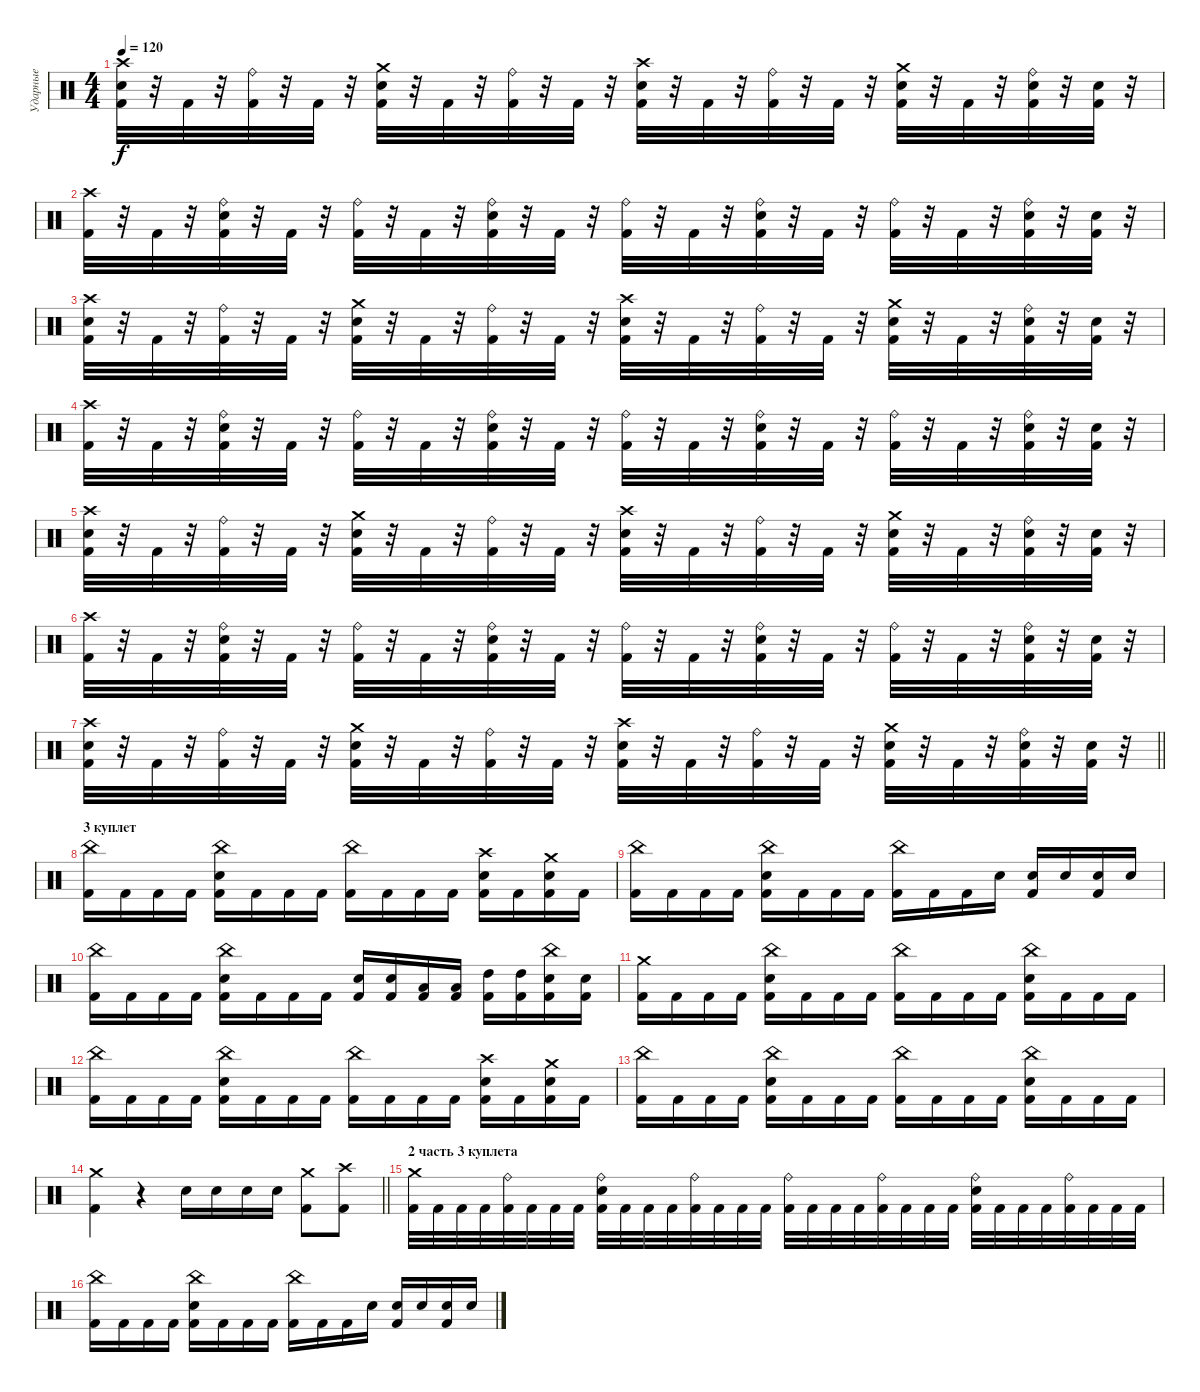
\track ("Ударные" "Ударные") {instrument percussion}
\staff {score}
\articulation defaults
\ts (4 4)
\tempo 120
\clef neutral
\ks c
("Crash high (hit)" "Snare (hit) 2" "Kick (hit) 2").32{dy f} r.32 "Kick (hit) 2".32 r.32 ("Ride (bell)" "Kick (hit) 2").32 r.32 "Kick (hit) 2".32 r.32 ("Crash medium (hit)" "Snare (hit) 2" "Kick (hit) 2").32 r.32 "Kick (hit) 2".32 r.32 ("Ride (bell)" "Kick (hit) 2").32 r.32 "Kick (hit) 2".32 r.32 ("Crash high (hit)" "Snare (hit) 2" "Kick (hit) 2").32 r.32 "Kick (hit) 2".32 r.32 ("Ride (bell)" "Kick (hit) 2").32 r.32 "Kick (hit) 2".32 r.32 ("Crash medium (hit)" "Snare (hit) 2" "Kick (hit) 2").32 r.32 "Kick (hit) 2".32 r.32 ("Ride (bell)" "Snare (hit) 2" "Kick (hit) 2").32 r.32 ("Snare (hit) 2" "Kick (hit) 2").32 r.32 |
("Crash high (hit)" "Kick (hit) 2").32 r.32 "Kick (hit) 2".32 r.32 ("Ride (bell)" "Snare (hit) 2" "Kick (hit) 2").32 r.32 "Kick (hit) 2".32 r.32 ("Ride (bell)" "Kick (hit) 2").32 r.32 "Kick (hit) 2".32 r.32 ("Ride (bell)" "Snare (hit) 2" "Kick (hit) 2").32 r.32 "Kick (hit) 2".32 r.32 ("Ride (bell)" "Kick (hit) 2").32 r.32 "Kick (hit) 2".32 r.32 ("Ride (bell)" "Snare (hit) 2" "Kick (hit) 2").32 r.32 "Kick (hit) 2".32 r.32 ("Ride (bell)" "Kick (hit) 2").32 r.32 "Kick (hit) 2".32 r.32 ("Ride (bell)" "Snare (hit) 2" "Kick (hit) 2").32 r.32 ("Snare (hit) 2" "Kick (hit) 2").32 r.32 |
("Crash high (hit)" "Snare (hit) 2" "Kick (hit) 2").32 r.32 "Kick (hit) 2".32 r.32 ("Ride (bell)" "Kick (hit) 2").32 r.32 "Kick (hit) 2".32 r.32 ("Crash medium (hit)" "Snare (hit) 2" "Kick (hit) 2").32 r.32 "Kick (hit) 2".32 r.32 ("Ride (bell)" "Kick (hit) 2").32 r.32 "Kick (hit) 2".32 r.32 ("Crash high (hit)" "Snare (hit) 2" "Kick (hit) 2").32 r.32 "Kick (hit) 2".32 r.32 ("Ride (bell)" "Kick (hit) 2").32 r.32 "Kick (hit) 2".32 r.32 ("Crash medium (hit)" "Snare (hit) 2" "Kick (hit) 2").32 r.32 "Kick (hit) 2".32 r.32 ("Ride (bell)" "Snare (hit) 2" "Kick (hit) 2").32 r.32 ("Snare (hit) 2" "Kick (hit) 2").32 r.32 |
("Crash high (hit)" "Kick (hit) 2").32 r.32 "Kick (hit) 2".32 r.32 ("Ride (bell)" "Snare (hit) 2" "Kick (hit) 2").32 r.32 "Kick (hit) 2".32 r.32 ("Ride (bell)" "Kick (hit) 2").32 r.32 "Kick (hit) 2".32 r.32 ("Ride (bell)" "Snare (hit) 2" "Kick (hit) 2").32 r.32 "Kick (hit) 2".32 r.32 ("Ride (bell)" "Kick (hit) 2").32 r.32 "Kick (hit) 2".32 r.32 ("Ride (bell)" "Snare (hit) 2" "Kick (hit) 2").32 r.32 "Kick (hit) 2".32 r.32 ("Ride (bell)" "Kick (hit) 2").32 r.32 "Kick (hit) 2".32 r.32 ("Ride (bell)" "Snare (hit) 2" "Kick (hit) 2").32 r.32 ("Snare (hit) 2" "Kick (hit) 2").32 r.32 |
("Crash high (hit)" "Snare (hit) 2" "Kick (hit) 2").32 r.32 "Kick (hit) 2".32 r.32 ("Ride (bell)" "Kick (hit) 2").32 r.32 "Kick (hit) 2".32 r.32 ("Crash medium (hit)" "Snare (hit) 2" "Kick (hit) 2").32 r.32 "Kick (hit) 2".32 r.32 ("Ride (bell)" "Kick (hit) 2").32 r.32 "Kick (hit) 2".32 r.32 ("Crash high (hit)" "Snare (hit) 2" "Kick (hit) 2").32 r.32 "Kick (hit) 2".32 r.32 ("Ride (bell)" "Kick (hit) 2").32 r.32 "Kick (hit) 2".32 r.32 ("Crash medium (hit)" "Snare (hit) 2" "Kick (hit) 2").32 r.32 "Kick (hit) 2".32 r.32 ("Ride (bell)" "Snare (hit) 2" "Kick (hit) 2").32 r.32 ("Snare (hit) 2" "Kick (hit) 2").32 r.32 |
("Crash high (hit)" "Kick (hit) 2").32 r.32 "Kick (hit) 2".32 r.32 ("Ride (bell)" "Snare (hit) 2" "Kick (hit) 2").32 r.32 "Kick (hit) 2".32 r.32 ("Ride (bell)" "Kick (hit) 2").32 r.32 "Kick (hit) 2".32 r.32 ("Ride (bell)" "Snare (hit) 2" "Kick (hit) 2").32 r.32 "Kick (hit) 2".32 r.32 ("Ride (bell)" "Kick (hit) 2").32 r.32 "Kick (hit) 2".32 r.32 ("Ride (bell)" "Snare (hit) 2" "Kick (hit) 2").32 r.32 "Kick (hit) 2".32 r.32 ("Ride (bell)" "Kick (hit) 2").32 r.32 "Kick (hit) 2".32 r.32 ("Ride (bell)" "Snare (hit) 2" "Kick (hit) 2").32 r.32 ("Snare (hit) 2" "Kick (hit) 2").32 r.32 |
\barLineRight lightlight
("Crash high (hit)" "Snare (hit) 2" "Kick (hit) 2").32 r.32 "Kick (hit) 2".32 r.32 ("Ride (bell)" "Kick (hit) 2").32 r.32 "Kick (hit) 2".32 r.32 ("Crash medium (hit)" "Snare (hit) 2" "Kick (hit) 2").32 r.32 "Kick (hit) 2".32 r.32 ("Ride (bell)" "Kick (hit) 2").32 r.32 "Kick (hit) 2".32 r.32 ("Crash high (hit)" "Snare (hit) 2" "Kick (hit) 2").32 r.32 "Kick (hit) 2".32 r.32 ("Ride (bell)" "Kick (hit) 2").32 r.32 "Kick (hit) 2".32 r.32 ("Crash medium (hit)" "Snare (hit) 2" "Kick (hit) 2").32 r.32 "Kick (hit) 2".32 r.32 ("Ride (bell)" "Snare (hit) 2" "Kick (hit) 2").32 r.32 ("Snare (hit) 2" "Kick (hit) 2").32 r.32 |
\section ("" "3 куплет")
("China (hit)" "Kick (hit) 2").16 "Kick (hit) 2".16 "Kick (hit) 2".16 "Kick (hit) 2".16 ("China (hit)" "Snare (hit) 2" "Kick (hit) 2").16 "Kick (hit) 2".16 "Kick (hit) 2".16 "Kick (hit) 2".16 ("China (hit)" "Kick (hit) 2").16 "Kick (hit) 2".16 "Kick (hit) 2".16 "Kick (hit) 2".16 ("Crash high (hit)" "Snare (hit) 2" "Kick (hit) 2").16 "Kick (hit) 2".16 ("Crash medium (hit)" "Snare (hit) 2" "Kick (hit) 2").16 "Kick (hit) 2".16 |
("China (hit)" "Kick (hit) 2").16 "Kick (hit) 2".16 "Kick (hit) 2".16 "Kick (hit) 2".16 ("China (hit)" "Snare (hit) 2" "Kick (hit) 2").16 "Kick (hit) 2".16 "Kick (hit) 2".16 "Kick (hit) 2".16 ("China (hit)" "Kick (hit) 2").16 "Kick (hit) 2".16 "Kick (hit) 2".16 "Snare (hit) 2".16 ("Snare (hit) 2" "Kick (hit) 2").16 "Snare (hit) 2".16 ("Snare (hit) 2" "Kick (hit) 2").16 "Snare (hit) 2".16 |
("China (hit)" "Kick (hit) 2").16 "Kick (hit) 2".16 "Kick (hit) 2".16 "Kick (hit) 2".16 ("China (hit)" "Snare (hit) 2" "Kick (hit) 2").16 "Kick (hit) 2".16 "Kick (hit) 2".16 "Kick (hit) 2".16 ("Snare (hit) 2" "Kick (hit) 2").16 ("Snare (hit) 2" "Kick (hit) 2").16 ("Low Tom (hit)" "Kick (hit) 2").16 ("Low Tom (hit)" "Kick (hit) 2").16 ("High Tom (hit)" "Kick (hit) 2").16 ("High Tom (hit)" "Kick (hit) 2").16 ("China (hit)" "Snare (hit) 2" "Kick (hit) 2").16 ("Snare (hit) 2" "Kick (hit) 2").16 |
("Crash medium (hit)" "Kick (hit) 2").16 "Kick (hit) 2".16 "Kick (hit) 2".16 "Kick (hit) 2".16 ("China (hit)" "Snare (hit) 2" "Kick (hit) 2").16 "Kick (hit) 2".16 "Kick (hit) 2".16 "Kick (hit) 2".16 ("China (hit)" "Kick (hit) 2").16 "Kick (hit) 2".16 "Kick (hit) 2".16 "Kick (hit) 2".16 ("China (hit)" "Snare (hit) 2" "Kick (hit) 2").16 "Kick (hit) 2".16 "Kick (hit) 2".16 "Kick (hit) 2".16 |
("China (hit)" "Kick (hit) 2").16 "Kick (hit) 2".16 "Kick (hit) 2".16 "Kick (hit) 2".16 ("China (hit)" "Snare (hit) 2" "Kick (hit) 2").16 "Kick (hit) 2".16 "Kick (hit) 2".16 "Kick (hit) 2".16 ("China (hit)" "Kick (hit) 2").16 "Kick (hit) 2".16 "Kick (hit) 2".16 "Kick (hit) 2".16 ("Crash high (hit)" "Snare (hit) 2" "Kick (hit) 2").16 "Kick (hit) 2".16 ("Crash medium (hit)" "Snare (hit) 2" "Kick (hit) 2").16 "Kick (hit) 2".16 |
("China (hit)" "Kick (hit) 2").16 "Kick (hit) 2".16 "Kick (hit) 2".16 "Kick (hit) 2".16 ("China (hit)" "Snare (hit) 2" "Kick (hit) 2").16 "Kick (hit) 2".16 "Kick (hit) 2".16 "Kick (hit) 2".16 ("China (hit)" "Kick (hit) 2").16 "Kick (hit) 2".16 "Kick (hit) 2".16 "Kick (hit) 2".16 ("China (hit)" "Snare (hit) 2" "Kick (hit) 2").16 "Kick (hit) 2".16 "Kick (hit) 2".16 "Kick (hit) 2".16 |
\barLineRight lightlight
("Crash medium (hit)" "Kick (hit) 2").4 r.4 "Snare (hit) 2".16 "Snare (hit) 2".16 "Snare (hit) 2".16 "Snare (hit) 2".16 ("Crash medium (hit)" "Kick (hit) 2").8 ("Crash high (hit)" "Kick (hit) 2").8 |
\section ("" "2 часть 3 куплета")
("Crash medium (hit)" "Kick (hit) 2").32 "Kick (hit) 2".32 "Kick (hit) 2".32 "Kick (hit) 2".32 ("Ride (bell)" "Kick (hit) 2").32 "Kick (hit) 2".32 "Kick (hit) 2".32 "Kick (hit) 2".32 ("Ride (bell)" "Snare (hit) 2" "Kick (hit) 2").32 "Kick (hit) 2".32 "Kick (hit) 2".32 "Kick (hit) 2".32 ("Ride (bell)" "Kick (hit) 2").32 "Kick (hit) 2".32 "Kick (hit) 2".32 "Kick (hit) 2".32 ("Ride (bell)" "Kick (hit) 2").32 "Kick (hit) 2".32 "Kick (hit) 2".32 "Kick (hit) 2".32 ("Ride (bell)" "Kick (hit) 2").32 "Kick (hit) 2".32 "Kick (hit) 2".32 "Kick (hit) 2".32 ("Ride (bell)" "Snare (hit) 2" "Kick (hit) 2").32 "Kick (hit) 2".32 "Kick (hit) 2".32 "Kick (hit) 2".32 ("Ride (bell)" "Kick (hit) 2").32 "Kick (hit) 2".32 "Kick (hit) 2".32 "Kick (hit) 2".32 |
("China (hit)" "Kick (hit) 2").16 "Kick (hit) 2".16 "Kick (hit) 2".16 "Kick (hit) 2".16 ("China (hit)" "Snare (hit) 2" "Kick (hit) 2").16 "Kick (hit) 2".16 "Kick (hit) 2".16 "Kick (hit) 2".16 ("China (hit)" "Kick (hit) 2").16 "Kick (hit) 2".16 "Kick (hit) 2".16 "Snare (hit) 2".16 ("Snare (hit) 2" "Kick (hit) 2").16 "Snare (hit) 2".16 ("Snare (hit) 2" "Kick (hit) 2").16 "Snare (hit) 2".16
